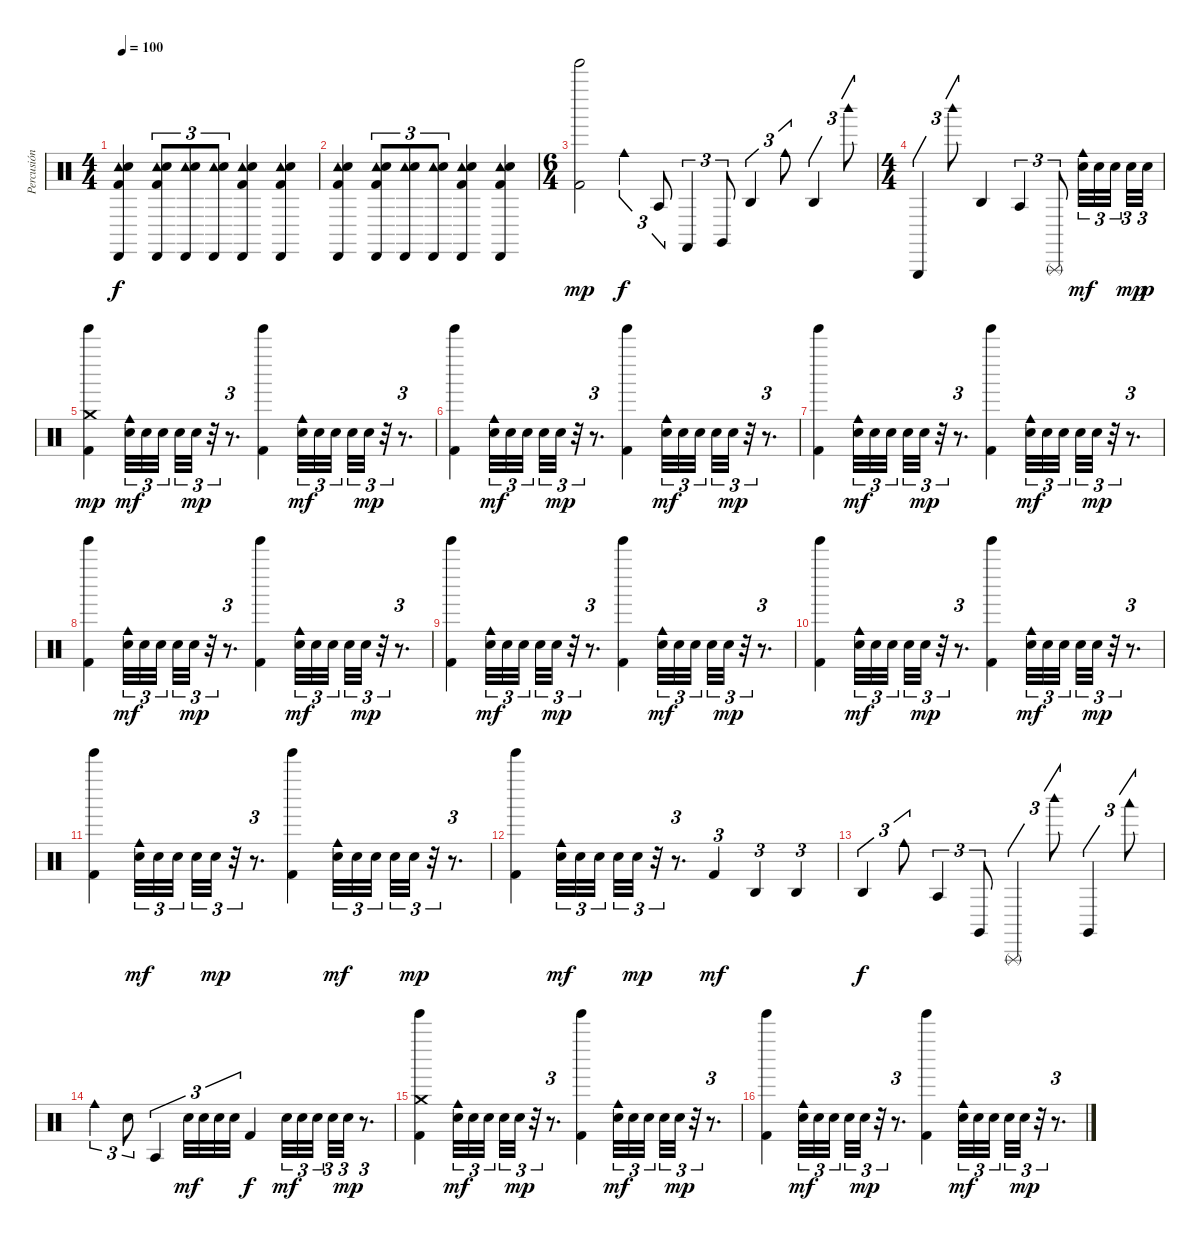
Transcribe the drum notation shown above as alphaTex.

\track ("Percusión" "Percusión") {instrument percussion}
\staff {score}
\articulation defaults
\ts (4 4)
\tempo 100
\clef neutral
\ks c
("Cabasa (hit)" "Tambourine (hit)" "Electric Snare (hit)" "Kick (hit) 2").4{dy f} ("Cabasa (hit)" "Tambourine (hit)" "Electric Snare (hit)" "Kick (hit) 2").8{tu (3 2)} ("Cabasa (hit)" "Tambourine (hit)" "Electric Snare (hit)").8{tu (3 2)} ("Cabasa (hit)" "Tambourine (hit)" "Electric Snare (hit)").8{tu (3 2)} ("Cabasa (hit)" "Tambourine (hit)" "Electric Snare (hit)" "Kick (hit) 2").4 ("Cabasa (hit)" "Tambourine (hit)" "Electric Snare (hit)" "Kick (hit) 2").4 |
("Cabasa (hit)" "Tambourine (hit)" "Electric Snare (hit)" "Kick (hit) 2").4 ("Cabasa (hit)" "Tambourine (hit)" "Electric Snare (hit)" "Kick (hit) 2").8{tu (3 2)} ("Cabasa (hit)" "Tambourine (hit)" "Electric Snare (hit)").8{tu (3 2)} ("Cabasa (hit)" "Tambourine (hit)" "Electric Snare (hit)").8{tu (3 2)} ("Cabasa (hit)" "Tambourine (hit)" "Electric Snare (hit)" "Kick (hit) 2").4 ("Cabasa (hit)" "Tambourine (hit)" "Electric Snare (hit)" "Kick (hit) 2").4 |
\ts (6 4)
("Tinkle Bell (hit)" "Kick (hit) 2").2{dy mp} "Cowbell medium (hit)".4{tu (3 2) dy f} "Agogo tow (hit)".8{tu (3 2)} "Castanets (hit)".4{tu (3 2)} "Claves (hit)".8{tu (3 2)} "Agogo high (hit)".4{tu (3 2)} "Cowbell medium (hit)".8{tu (3 2)} "Agogo high (hit)".4{tu (3 2)} "Woodblock high (hit)".8{tu (3 2)} |
\ts (4 4)
"Triangle (hit)".4{tu (3 2)} "Woodblock high (hit)".8{tu (3 2)} "Agogo high (hit)".4 "Agogo tow (hit)".4{tu (3 2)} "Triangle (rnute)".8{tu (3 2)} ("Cowbell medium (hit)" "Electric Snare (hit)").32{tu (3 2) dy mf} "Electric Snare (hit)".32{tu (3 2)} "Electric Snare (hit)".32{tu (3 2) beam splitsecondary} "Electric Snare (hit)".32{tu (3 2) dy mp} "Electric Snare (hit)".32{tu (3 2) dy p} |
("Crash medium (hit)" "Tinkle Bell (hit)" "Kick (hit) 2").4{dy mp} ("Cowbell medium (hit)" "Electric Snare (hit)").32{tu (3 2) dy mf} "Electric Snare (hit)".32{tu (3 2)} "Electric Snare (hit)".32{tu (3 2) beam splitsecondary} "Electric Snare (hit)".32{tu (3 2)} "Electric Snare (hit)".32{tu (3 2) dy mp} r.32{tu (3 2)} r.8{d tu (3 2)} ("Tinkle Bell (hit)" "Kick (hit) 2").4 ("Cowbell medium (hit)" "Electric Snare (hit)").32{tu (3 2) dy mf} "Electric Snare (hit)".32{tu (3 2)} "Electric Snare (hit)".32{tu (3 2) beam splitsecondary} "Electric Snare (hit)".32{tu (3 2)} "Electric Snare (hit)".32{tu (3 2) dy mp} r.32{tu (3 2)} r.8{d tu (3 2)} |
("Tinkle Bell (hit)" "Kick (hit) 2").4 ("Cowbell medium (hit)" "Electric Snare (hit)").32{tu (3 2) dy mf} "Electric Snare (hit)".32{tu (3 2)} "Electric Snare (hit)".32{tu (3 2) beam splitsecondary} "Electric Snare (hit)".32{tu (3 2)} "Electric Snare (hit)".32{tu (3 2) dy mp} r.32{tu (3 2)} r.8{d tu (3 2)} ("Tinkle Bell (hit)" "Kick (hit) 2").4 ("Cowbell medium (hit)" "Electric Snare (hit)").32{tu (3 2) dy mf} "Electric Snare (hit)".32{tu (3 2)} "Electric Snare (hit)".32{tu (3 2) beam splitsecondary} "Electric Snare (hit)".32{tu (3 2)} "Electric Snare (hit)".32{tu (3 2) dy mp} r.32{tu (3 2)} r.8{d tu (3 2)} |
("Tinkle Bell (hit)" "Kick (hit) 2").4 ("Cowbell medium (hit)" "Electric Snare (hit)").32{tu (3 2) dy mf} "Electric Snare (hit)".32{tu (3 2)} "Electric Snare (hit)".32{tu (3 2) beam splitsecondary} "Electric Snare (hit)".32{tu (3 2)} "Electric Snare (hit)".32{tu (3 2) dy mp} r.32{tu (3 2)} r.8{d tu (3 2)} ("Tinkle Bell (hit)" "Kick (hit) 2").4 ("Cowbell medium (hit)" "Electric Snare (hit)").32{tu (3 2) dy mf} "Electric Snare (hit)".32{tu (3 2)} "Electric Snare (hit)".32{tu (3 2) beam splitsecondary} "Electric Snare (hit)".32{tu (3 2)} "Electric Snare (hit)".32{tu (3 2) dy mp} r.32{tu (3 2)} r.8{d tu (3 2)} |
("Tinkle Bell (hit)" "Kick (hit) 2").4 ("Cowbell medium (hit)" "Electric Snare (hit)").32{tu (3 2) dy mf} "Electric Snare (hit)".32{tu (3 2)} "Electric Snare (hit)".32{tu (3 2) beam splitsecondary} "Electric Snare (hit)".32{tu (3 2)} "Electric Snare (hit)".32{tu (3 2) dy mp} r.32{tu (3 2)} r.8{d tu (3 2)} ("Tinkle Bell (hit)" "Kick (hit) 2").4 ("Cowbell medium (hit)" "Electric Snare (hit)").32{tu (3 2) dy mf} "Electric Snare (hit)".32{tu (3 2)} "Electric Snare (hit)".32{tu (3 2) beam splitsecondary} "Electric Snare (hit)".32{tu (3 2)} "Electric Snare (hit)".32{tu (3 2) dy mp} r.32{tu (3 2)} r.8{d tu (3 2)} |
("Tinkle Bell (hit)" "Kick (hit) 2").4 ("Cowbell medium (hit)" "Electric Snare (hit)").32{tu (3 2) dy mf} "Electric Snare (hit)".32{tu (3 2)} "Electric Snare (hit)".32{tu (3 2) beam splitsecondary} "Electric Snare (hit)".32{tu (3 2)} "Electric Snare (hit)".32{tu (3 2) dy mp} r.32{tu (3 2)} r.8{d tu (3 2)} ("Tinkle Bell (hit)" "Kick (hit) 2").4 ("Cowbell medium (hit)" "Electric Snare (hit)").32{tu (3 2) dy mf} "Electric Snare (hit)".32{tu (3 2)} "Electric Snare (hit)".32{tu (3 2) beam splitsecondary} "Electric Snare (hit)".32{tu (3 2)} "Electric Snare (hit)".32{tu (3 2) dy mp} r.32{tu (3 2)} r.8{d tu (3 2)} |
("Tinkle Bell (hit)" "Kick (hit) 2").4 ("Cowbell medium (hit)" "Electric Snare (hit)").32{tu (3 2) dy mf} "Electric Snare (hit)".32{tu (3 2)} "Electric Snare (hit)".32{tu (3 2) beam splitsecondary} "Electric Snare (hit)".32{tu (3 2)} "Electric Snare (hit)".32{tu (3 2) dy mp} r.32{tu (3 2)} r.8{d tu (3 2)} ("Tinkle Bell (hit)" "Kick (hit) 2").4 ("Cowbell medium (hit)" "Electric Snare (hit)").32{tu (3 2) dy mf} "Electric Snare (hit)".32{tu (3 2)} "Electric Snare (hit)".32{tu (3 2) beam splitsecondary} "Electric Snare (hit)".32{tu (3 2)} "Electric Snare (hit)".32{tu (3 2) dy mp} r.32{tu (3 2)} r.8{d tu (3 2)} |
("Tinkle Bell (hit)" "Kick (hit) 2").4 ("Cowbell medium (hit)" "Electric Snare (hit)").32{tu (3 2) dy mf} "Electric Snare (hit)".32{tu (3 2)} "Electric Snare (hit)".32{tu (3 2) beam splitsecondary} "Electric Snare (hit)".32{tu (3 2)} "Electric Snare (hit)".32{tu (3 2) dy mp} r.32{tu (3 2)} r.8{d tu (3 2)} ("Tinkle Bell (hit)" "Kick (hit) 2").4 ("Cowbell medium (hit)" "Electric Snare (hit)").32{tu (3 2) dy mf} "Electric Snare (hit)".32{tu (3 2)} "Electric Snare (hit)".32{tu (3 2) beam splitsecondary} "Electric Snare (hit)".32{tu (3 2)} "Electric Snare (hit)".32{tu (3 2) dy mp} r.32{tu (3 2)} r.8{d tu (3 2)} |
("Tinkle Bell (hit)" "Kick (hit) 2").4 ("Cowbell medium (hit)" "Electric Snare (hit)").32{tu (3 2) dy mf} "Electric Snare (hit)".32{tu (3 2)} "Electric Snare (hit)".32{tu (3 2) beam splitsecondary} "Electric Snare (hit)".32{tu (3 2)} "Electric Snare (hit)".32{tu (3 2) dy mp} r.32{tu (3 2)} r.8{d tu (3 2)} "Kick (hit) 2".4{tu (3 2) dy mf} "Agogo high (hit)".4{tu (3 2)} "Agogo high (hit)".4{tu (3 2)} |
"Agogo high (hit)".4{tu (3 2) dy f} "Cowbell medium (hit)".8{tu (3 2)} "Agogo tow (hit)".4{tu (3 2)} "Claves (hit)".8{tu (3 2)} "Triangle (rnute)".4{tu (3 2)} "Woodblock high (hit)".8{tu (3 2)} "Claves (hit)".4{tu (3 2)} "Woodblock low (hit)".8{tu (3 2)} |
"Cowbell medium (hit)".4{tu (3 2)} "Electric Snare (hit)".8{tu (3 2)} "Agogo tow (hit)".4{tu (3 2)} "Electric Snare (hit)".32{tu (3 2) dy mf} "Electric Snare (hit)".32{tu (3 2)} "Electric Snare (hit)".32{tu (3 2)} "Electric Snare (hit)".32{tu (3 2)} "Kick (hit) 2".4{dy f} "Electric Snare (hit)".32{tu (3 2) dy mf} "Electric Snare (hit)".32{tu (3 2)} "Electric Snare (hit)".32{tu (3 2) beam splitsecondary} "Electric Snare (hit)".32{tu (3 2)} "Electric Snare (hit)".32{tu (3 2) dy mp} r.8{d tu (3 2)} |
("Crash medium (hit)" "Tinkle Bell (hit)" "Kick (hit) 2").4 ("Cowbell medium (hit)" "Electric Snare (hit)").32{tu (3 2) dy mf} "Electric Snare (hit)".32{tu (3 2)} "Electric Snare (hit)".32{tu (3 2) beam splitsecondary} "Electric Snare (hit)".32{tu (3 2)} "Electric Snare (hit)".32{tu (3 2) dy mp} r.32{tu (3 2)} r.8{d tu (3 2)} ("Tinkle Bell (hit)" "Kick (hit) 2").4 ("Cowbell medium (hit)" "Electric Snare (hit)").32{tu (3 2) dy mf} "Electric Snare (hit)".32{tu (3 2)} "Electric Snare (hit)".32{tu (3 2) beam splitsecondary} "Electric Snare (hit)".32{tu (3 2)} "Electric Snare (hit)".32{tu (3 2) dy mp} r.32{tu (3 2)} r.8{d tu (3 2)} |
("Tinkle Bell (hit)" "Kick (hit) 2").4 ("Cowbell medium (hit)" "Electric Snare (hit)").32{tu (3 2) dy mf} "Electric Snare (hit)".32{tu (3 2)} "Electric Snare (hit)".32{tu (3 2) beam splitsecondary} "Electric Snare (hit)".32{tu (3 2)} "Electric Snare (hit)".32{tu (3 2) dy mp} r.32{tu (3 2)} r.8{d tu (3 2)} ("Tinkle Bell (hit)" "Kick (hit) 2").4 ("Cowbell medium (hit)" "Electric Snare (hit)").32{tu (3 2) dy mf} "Electric Snare (hit)".32{tu (3 2)} "Electric Snare (hit)".32{tu (3 2) beam splitsecondary} "Electric Snare (hit)".32{tu (3 2)} "Electric Snare (hit)".32{tu (3 2) dy mp} r.32{tu (3 2)} r.8{d tu (3 2)}
